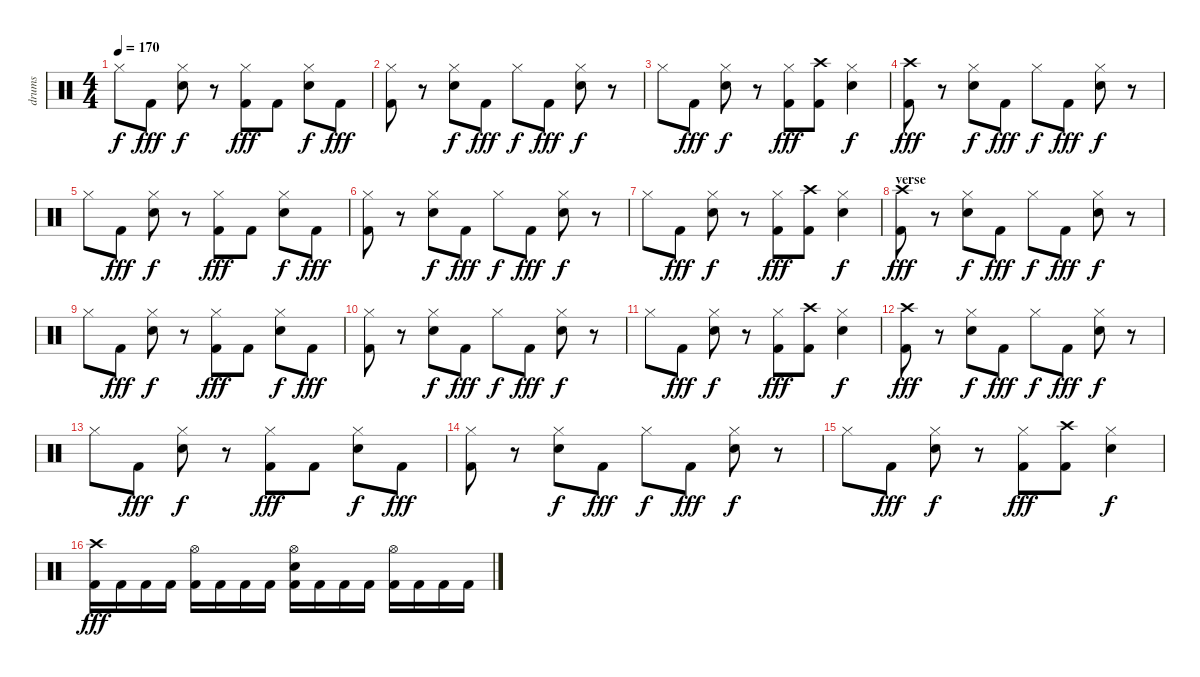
\track ("drums" "drums") {instrument percussion}
\staff {score}
\articulation defaults
\ts (4 4)
\tempo 170
\clef neutral
\ks c "Hi-Hat (closed)".8{dy f} "Kick (hit) 2".8{dy fff}
("Hi-Hat (closed)" "Snare (hit) 2").8{dy f} r.8 ("Hi-Hat (closed)" "Kick (hit) 2").8{dy fff} "Kick (hit) 2".8 ("Hi-Hat (closed)" "Snare (hit) 2").8{dy f} "Kick (hit) 2".8{dy fff} |
("Hi-Hat (closed)" "Kick (hit) 2").8 r.8 ("Hi-Hat (closed)" "Snare (hit) 2").8{dy f} "Kick (hit) 2".8{dy fff} "Hi-Hat (closed)".8{dy f} "Kick (hit) 2".8{dy fff} ("Hi-Hat (closed)" "Snare (hit) 2").8{dy f} r.8 |
"Hi-Hat (closed)".8 "Kick (hit) 2".8{dy fff} ("Hi-Hat (closed)" "Snare (hit) 2").8{dy f} r.8 ("Hi-Hat (closed)" "Kick (hit) 2").8{dy fff} ("Crash high (hit)" "Kick (hit) 2").8 ("Hi-Hat (closed)" "Snare (hit) 2").4{dy f} |
("Crash high (hit)" "Kick (hit) 2").8{dy fff} r.8 ("Hi-Hat (closed)" "Snare (hit) 2").8{dy f} "Kick (hit) 2".8{dy fff} "Hi-Hat (closed)".8{dy f} "Kick (hit) 2".8{dy fff} ("Hi-Hat (closed)" "Snare (hit) 2").8{dy f} r.8 |
"Hi-Hat (closed)".8 "Kick (hit) 2".8{dy fff} ("Hi-Hat (closed)" "Snare (hit) 2").8{dy f} r.8 ("Hi-Hat (closed)" "Kick (hit) 2").8{dy fff} "Kick (hit) 2".8 ("Hi-Hat (closed)" "Snare (hit) 2").8{dy f} "Kick (hit) 2".8{dy fff} |
("Hi-Hat (closed)" "Kick (hit) 2").8 r.8 ("Hi-Hat (closed)" "Snare (hit) 2").8{dy f} "Kick (hit) 2".8{dy fff} "Hi-Hat (closed)".8{dy f} "Kick (hit) 2".8{dy fff} ("Hi-Hat (closed)" "Snare (hit) 2").8{dy f} r.8 |
"Hi-Hat (closed)".8 "Kick (hit) 2".8{dy fff} ("Hi-Hat (closed)" "Snare (hit) 2").8{dy f} r.8 ("Hi-Hat (closed)" "Kick (hit) 2").8{dy fff} ("Crash high (hit)" "Kick (hit) 2").8 ("Hi-Hat (closed)" "Snare (hit) 2").4{dy f} |
\section ("" "verse")
("Crash high (hit)" "Kick (hit) 2").8{dy fff} r.8 ("Hi-Hat (closed)" "Snare (hit) 2").8{dy f} "Kick (hit) 2".8{dy fff} "Hi-Hat (closed)".8{dy f} "Kick (hit) 2".8{dy fff} ("Hi-Hat (closed)" "Snare (hit) 2").8{dy f} r.8 |
"Hi-Hat (closed)".8 "Kick (hit) 2".8{dy fff} ("Hi-Hat (closed)" "Snare (hit) 2").8{dy f} r.8 ("Hi-Hat (closed)" "Kick (hit) 2").8{dy fff} "Kick (hit) 2".8 ("Hi-Hat (closed)" "Snare (hit) 2").8{dy f} "Kick (hit) 2".8{dy fff} |
("Hi-Hat (closed)" "Kick (hit) 2").8 r.8 ("Hi-Hat (closed)" "Snare (hit) 2").8{dy f} "Kick (hit) 2".8{dy fff} "Hi-Hat (closed)".8{dy f} "Kick (hit) 2".8{dy fff} ("Hi-Hat (closed)" "Snare (hit) 2").8{dy f} r.8 |
"Hi-Hat (closed)".8 "Kick (hit) 2".8{dy fff} ("Hi-Hat (closed)" "Snare (hit) 2").8{dy f} r.8 ("Hi-Hat (closed)" "Kick (hit) 2").8{dy fff} ("Crash high (hit)" "Kick (hit) 2").8 ("Hi-Hat (closed)" "Snare (hit) 2").4{dy f} |
("Crash high (hit)" "Kick (hit) 2").8{dy fff} r.8 ("Hi-Hat (closed)" "Snare (hit) 2").8{dy f} "Kick (hit) 2".8{dy fff} "Hi-Hat (closed)".8{dy f} "Kick (hit) 2".8{dy fff} ("Hi-Hat (closed)" "Snare (hit) 2").8{dy f} r.8 |
"Hi-Hat (closed)".8 "Kick (hit) 2".8{dy fff} ("Hi-Hat (closed)" "Snare (hit) 2").8{dy f} r.8 ("Hi-Hat (closed)" "Kick (hit) 2").8{dy fff} "Kick (hit) 2".8 ("Hi-Hat (closed)" "Snare (hit) 2").8{dy f} "Kick (hit) 2".8{dy fff} |
("Hi-Hat (closed)" "Kick (hit) 2").8 r.8 ("Hi-Hat (closed)" "Snare (hit) 2").8{dy f} "Kick (hit) 2".8{dy fff} "Hi-Hat (closed)".8{dy f} "Kick (hit) 2".8{dy fff} ("Hi-Hat (closed)" "Snare (hit) 2").8{dy f} r.8 |
"Hi-Hat (closed)".8 "Kick (hit) 2".8{dy fff} ("Hi-Hat (closed)" "Snare (hit) 2").8{dy f} r.8 ("Hi-Hat (closed)" "Kick (hit) 2").8{dy fff} ("Crash high (hit)" "Kick (hit) 2").8 ("Hi-Hat (closed)" "Snare (hit) 2").4{dy f} |
("Crash high (hit)" "Kick (hit) 2").16{dy fff} "Kick (hit) 2".16 "Kick (hit) 2".16 "Kick (hit) 2".16 ("Hi-Hat (open)" "Kick (hit) 2").16 "Kick (hit) 2".16 "Kick (hit) 2".16 "Kick (hit) 2".16 ("Hi-Hat (open)" "Snare (hit) 2" "Kick (hit) 2").16 "Kick (hit) 2".16 "Kick (hit) 2".16 "Kick (hit) 2".16 ("Hi-Hat (open)" "Kick (hit) 2").16 "Kick (hit) 2".16 "Kick (hit) 2".16 "Kick (hit) 2".16
